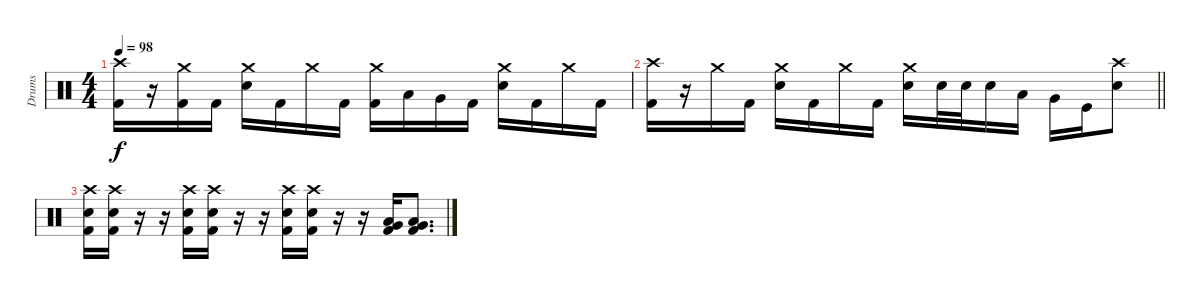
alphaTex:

\track ("Drums" "Drums") {instrument percussion}
\staff {score}
\articulation defaults
\ts (4 4)
\tempo 98
\clef neutral
\ks c
("Crash high (hit)" "Kick (hit) 2").16{dy f} r.16 ("Crash medium (hit)" "Kick (hit) 2").16 "Kick (hit) 2".16 ("Crash medium (hit)" "Snare (hit) 2").16 "Kick (hit) 2".16 "Crash medium (hit)".16 "Kick (hit) 2".16 ("Crash medium (hit)" "Kick (hit) 2").16 "Low Tom (hit)".16 "Very Low Tom (hit)".16 "Kick (hit) 2".16 ("Crash medium (hit)" "Snare (hit) 2").16 "Kick (hit) 2".16 "Crash medium (hit)".16 "Kick (hit) 2".16 |
\barLineRight lightlight
("Crash high (hit)" "Kick (hit) 2").16 r.16 "Crash medium (hit)".16 "Kick (hit) 2".16 ("Crash medium (hit)" "Snare (hit) 2").16 "Kick (hit) 2".16 "Crash medium (hit)".16 "Kick (hit) 2".16 ("Crash medium (hit)" "Snare (hit) 2").16 "Snare (hit) 2".32 "Snare (hit) 2".32 "Snare (hit) 2".16 "Low Tom (hit)".16 "Very Low Tom (hit)".16 "Kick (hit)".16 ("Crash high (hit)" "Snare (hit) 2").8 |
("Crash high (hit)" "Snare (hit) 2" "Kick (hit) 2").16 ("Crash high (hit)" "Snare (hit) 2" "Kick (hit) 2").16 r.16 r.16 ("Crash high (hit)" "Snare (hit) 2" "Kick (hit) 2").16 ("Crash high (hit)" "Snare (hit) 2" "Kick (hit) 2").16 r.16 r.16 ("Crash high (hit)" "Snare (hit) 2" "Kick (hit) 2").16 ("Crash high (hit)" "Snare (hit) 2" "Kick (hit) 2").16 r.16 r.16 ("Low Tom (hit)" "Very Low Tom (hit)" "Kick (hit) 2").16 ("Low Tom (hit)" "Very Low Tom (hit)" "Kick (hit) 2").8{d}
